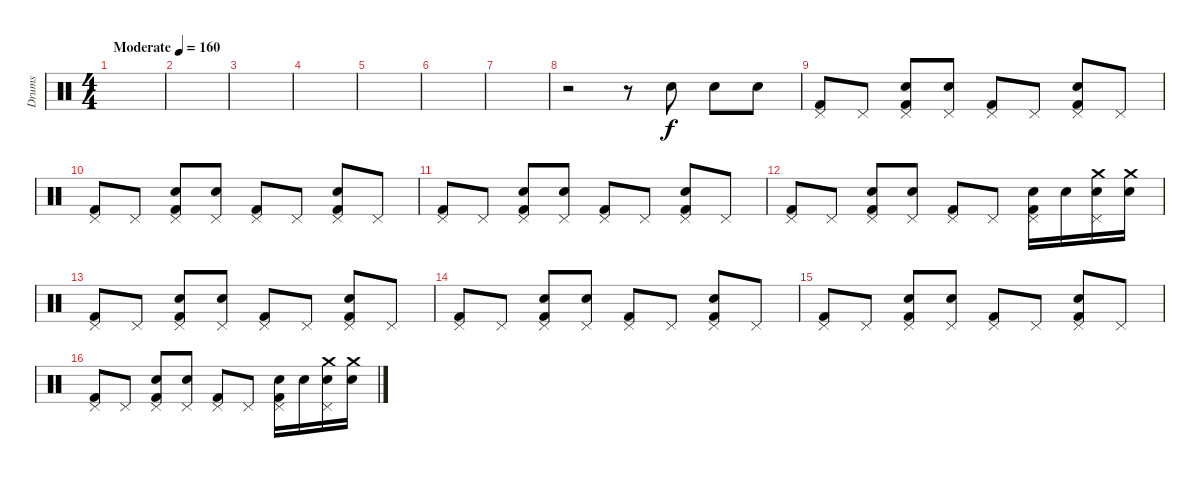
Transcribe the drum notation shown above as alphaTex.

\track ("Drums" "Drums") {instrument percussion}
\staff {score}
\articulation defaults
\ts (4 4)
\tempo (160 "Moderate")
\clef neutral
\ks c
|
|
|
|
|
|
|
r.2 r.8 "Snare (hit) 2".8 "Snare (hit) 2".8 "Snare (hit) 2".8 |
("Pedal Hi-Hat (hit)" "Kick (hit) 2").8 "Pedal Hi-Hat (hit)".8 ("Snare (hit) 2" "Pedal Hi-Hat (hit)" "Kick (hit) 2").8 ("Snare (hit) 2" "Pedal Hi-Hat (hit)").8 ("Pedal Hi-Hat (hit)" "Kick (hit) 2").8 "Pedal Hi-Hat (hit)".8 ("Snare (hit) 2" "Pedal Hi-Hat (hit)" "Kick (hit) 2").8 "Pedal Hi-Hat (hit)".8 |
("Pedal Hi-Hat (hit)" "Kick (hit) 2").8 "Pedal Hi-Hat (hit)".8 ("Snare (hit) 2" "Pedal Hi-Hat (hit)" "Kick (hit) 2").8 ("Snare (hit) 2" "Pedal Hi-Hat (hit)").8 ("Pedal Hi-Hat (hit)" "Kick (hit) 2").8 "Pedal Hi-Hat (hit)".8 ("Snare (hit) 2" "Pedal Hi-Hat (hit)" "Kick (hit) 2").8 "Pedal Hi-Hat (hit)".8 |
("Pedal Hi-Hat (hit)" "Kick (hit) 2").8 "Pedal Hi-Hat (hit)".8 ("Snare (hit) 2" "Pedal Hi-Hat (hit)" "Kick (hit) 2").8 ("Snare (hit) 2" "Pedal Hi-Hat (hit)").8 ("Pedal Hi-Hat (hit)" "Kick (hit) 2").8 "Pedal Hi-Hat (hit)".8 ("Snare (hit) 2" "Pedal Hi-Hat (hit)" "Kick (hit) 2").8 "Pedal Hi-Hat (hit)".8 |
("Pedal Hi-Hat (hit)" "Kick (hit) 2").8 "Pedal Hi-Hat (hit)".8 ("Snare (hit) 2" "Pedal Hi-Hat (hit)" "Kick (hit) 2").8 ("Snare (hit) 2" "Pedal Hi-Hat (hit)").8 ("Pedal Hi-Hat (hit)" "Kick (hit) 2").8 "Pedal Hi-Hat (hit)".8 ("Snare (hit) 2" "Pedal Hi-Hat (hit)" "Kick (hit) 2").16 "Snare (hit) 2".16 ("Crash medium (hit)" "Snare (hit) 2" "Pedal Hi-Hat (hit)").16 ("Crash medium (hit)" "Snare (hit) 2").16 |
("Pedal Hi-Hat (hit)" "Kick (hit) 2").8 "Pedal Hi-Hat (hit)".8 ("Snare (hit) 2" "Pedal Hi-Hat (hit)" "Kick (hit) 2").8 ("Snare (hit) 2" "Pedal Hi-Hat (hit)").8 ("Pedal Hi-Hat (hit)" "Kick (hit) 2").8 "Pedal Hi-Hat (hit)".8 ("Snare (hit) 2" "Pedal Hi-Hat (hit)" "Kick (hit) 2").8 "Pedal Hi-Hat (hit)".8 |
("Pedal Hi-Hat (hit)" "Kick (hit) 2").8 "Pedal Hi-Hat (hit)".8 ("Snare (hit) 2" "Pedal Hi-Hat (hit)" "Kick (hit) 2").8 ("Snare (hit) 2" "Pedal Hi-Hat (hit)").8 ("Pedal Hi-Hat (hit)" "Kick (hit) 2").8 "Pedal Hi-Hat (hit)".8 ("Snare (hit) 2" "Pedal Hi-Hat (hit)" "Kick (hit) 2").8 "Pedal Hi-Hat (hit)".8 |
("Pedal Hi-Hat (hit)" "Kick (hit) 2").8 "Pedal Hi-Hat (hit)".8 ("Snare (hit) 2" "Pedal Hi-Hat (hit)" "Kick (hit) 2").8 ("Snare (hit) 2" "Pedal Hi-Hat (hit)").8 ("Pedal Hi-Hat (hit)" "Kick (hit) 2").8 "Pedal Hi-Hat (hit)".8 ("Snare (hit) 2" "Pedal Hi-Hat (hit)" "Kick (hit) 2").8 "Pedal Hi-Hat (hit)".8 |
("Pedal Hi-Hat (hit)" "Kick (hit) 2").8 "Pedal Hi-Hat (hit)".8 ("Snare (hit) 2" "Pedal Hi-Hat (hit)" "Kick (hit) 2").8 ("Snare (hit) 2" "Pedal Hi-Hat (hit)").8 ("Pedal Hi-Hat (hit)" "Kick (hit) 2").8 "Pedal Hi-Hat (hit)".8 ("Snare (hit) 2" "Pedal Hi-Hat (hit)" "Kick (hit) 2").16 "Snare (hit) 2".16 ("Crash medium (hit)" "Snare (hit) 2" "Pedal Hi-Hat (hit)").16 ("Crash medium (hit)" "Snare (hit) 2").16
